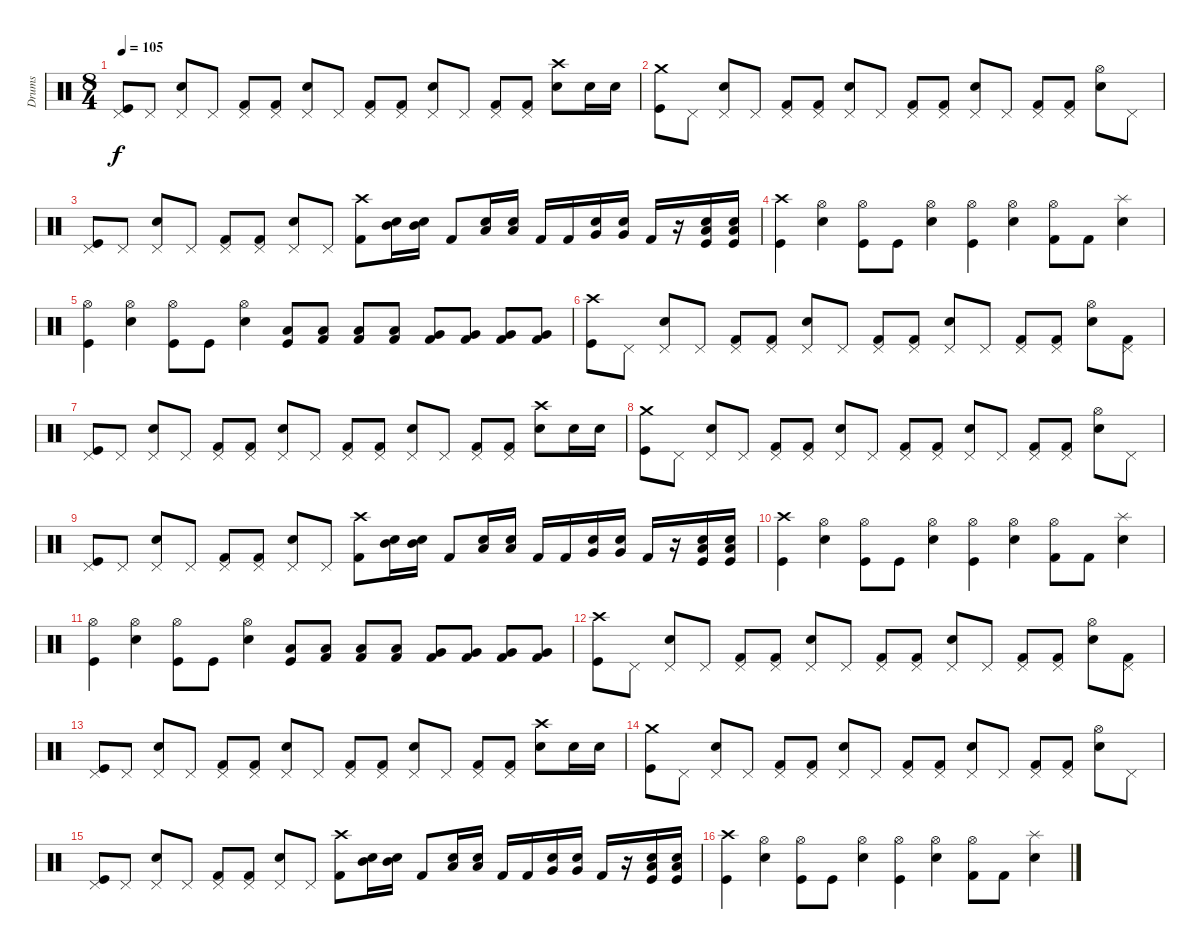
\track ("Drums" "Drums") {instrument percussion}
\staff {score}
\articulation defaults
\ts (8 4)
\tempo 105
\clef neutral
\ks c
("Pedal Hi-Hat (hit)" "Kick (hit)").8{dy f} "Pedal Hi-Hat (hit)".8 ("Pedal Hi-Hat (hit)" "Snare (hit) 2").8 "Pedal Hi-Hat (hit)".8 ("Pedal Hi-Hat (hit)" "Kick (hit) 2").8 ("Pedal Hi-Hat (hit)" "Kick (hit) 2").8 ("Pedal Hi-Hat (hit)" "Snare (hit) 2").8 "Pedal Hi-Hat (hit)".8 ("Pedal Hi-Hat (hit)" "Kick (hit) 2").8 ("Pedal Hi-Hat (hit)" "Kick (hit) 2").8 ("Pedal Hi-Hat (hit)" "Snare (hit) 2").8 "Pedal Hi-Hat (hit)".8 ("Pedal Hi-Hat (hit)" "Kick (hit) 2").8 ("Pedal Hi-Hat (hit)" "Kick (hit) 2").8 ("Crash high (hit)" "Snare (hit) 2").8 "Snare (hit) 2".16 "Snare (hit) 2".16 |
("Crash medium (hit)" "Kick (hit)").8 "Pedal Hi-Hat (hit)".8 ("Pedal Hi-Hat (hit)" "Snare (hit) 2").8 "Pedal Hi-Hat (hit)".8 ("Pedal Hi-Hat (hit)" "Kick (hit) 2").8 ("Pedal Hi-Hat (hit)" "Kick (hit) 2").8 ("Pedal Hi-Hat (hit)" "Snare (hit) 2").8 "Pedal Hi-Hat (hit)".8 ("Pedal Hi-Hat (hit)" "Kick (hit) 2").8 ("Pedal Hi-Hat (hit)" "Kick (hit) 2").8 ("Pedal Hi-Hat (hit)" "Snare (hit) 2").8 "Pedal Hi-Hat (hit)".8 ("Pedal Hi-Hat (hit)" "Kick (hit) 2").8 ("Pedal Hi-Hat (hit)" "Kick (hit) 2").8 ("Hi-Hat (open)" "Snare (hit) 2").8 "Pedal Hi-Hat (hit)".8 |
("Pedal Hi-Hat (hit)" "Kick (hit)").8 "Pedal Hi-Hat (hit)".8 ("Pedal Hi-Hat (hit)" "Snare (hit) 2").8 "Pedal Hi-Hat (hit)".8 ("Pedal Hi-Hat (hit)" "Kick (hit) 2").8 ("Pedal Hi-Hat (hit)" "Kick (hit) 2").8 ("Pedal Hi-Hat (hit)" "Snare (hit) 2").8 "Pedal Hi-Hat (hit)".8 ("Crash high (hit)" "Kick (hit) 2").8 ("Mid Tom (hit)" "Snare (hit) 2").16 ("Mid Tom (hit)" "Snare (hit) 2").16 "Kick (hit) 2".8 ("Low Tom (hit)" "Snare (hit) 2").16 ("Low Tom (hit)" "Snare (hit) 2").16 "Kick (hit) 2".16 "Kick (hit) 2".16 ("Very Low Tom (hit)" "Snare (hit) 2").16 ("Very Low Tom (hit)" "Snare (hit) 2").16 "Kick (hit) 2".16 r.16 ("Low Floor Tom (hit)" "Snare (hit) 2" "Kick (hit)").16 ("Low Floor Tom (hit)" "Snare (hit) 2" "Kick (hit)").16 |
("Crash high (hit)" "Kick (hit)").4 ("Hi-Hat (open)" "Snare (hit) 2").4 ("Hi-Hat (open)" "Kick (hit)").8 "Kick (hit)".8 ("Hi-Hat (open)" "Snare (hit) 2").4 ("Hi-Hat (open)" "Kick (hit)").4 ("Hi-Hat (open)" "Snare (hit) 2").4 ("Hi-Hat (open)" "Kick (hit) 2").8 "Kick (hit) 2".8 ("Splash (hit)" "Snare (hit) 2").4 |
("Hi-Hat (open)" "Kick (hit)").4 ("Hi-Hat (open)" "Snare (hit) 2").4 ("Hi-Hat (open)" "Kick (hit)").8 "Kick (hit)".8 ("Hi-Hat (open)" "Snare (hit) 2").4 ("Low Tom (hit)" "Kick (hit)").8 ("Low Tom (hit)" "Kick (hit) 2").8 ("Low Tom (hit)" "Kick (hit) 2").8 ("Low Tom (hit)" "Kick (hit) 2").8 ("Very Low Tom (hit)" "Kick (hit) 2").8 ("Very Low Tom (hit)" "Kick (hit) 2").8 ("Very Low Tom (hit)" "Kick (hit) 2").8 ("Very Low Tom (hit)" "Kick (hit) 2").8 |
("Crash high (hit)" "Kick (hit)").8 "Pedal Hi-Hat (hit)".8 ("Pedal Hi-Hat (hit)" "Snare (hit) 2").8 "Pedal Hi-Hat (hit)".8 ("Pedal Hi-Hat (hit)" "Kick (hit) 2").8 ("Pedal Hi-Hat (hit)" "Kick (hit) 2").8 ("Pedal Hi-Hat (hit)" "Snare (hit) 2").8 "Pedal Hi-Hat (hit)".8 ("Pedal Hi-Hat (hit)" "Kick (hit) 2").8 ("Pedal Hi-Hat (hit)" "Kick (hit) 2").8 ("Pedal Hi-Hat (hit)" "Snare (hit) 2").8 "Pedal Hi-Hat (hit)".8 ("Pedal Hi-Hat (hit)" "Kick (hit) 2").8 ("Pedal Hi-Hat (hit)" "Kick (hit) 2").8 ("Hi-Hat (open)" "Snare (hit) 2").8 ("Pedal Hi-Hat (hit)" "Kick (hit) 2").8 |
("Pedal Hi-Hat (hit)" "Kick (hit)").8 "Pedal Hi-Hat (hit)".8 ("Pedal Hi-Hat (hit)" "Snare (hit) 2").8 "Pedal Hi-Hat (hit)".8 ("Pedal Hi-Hat (hit)" "Kick (hit) 2").8 ("Pedal Hi-Hat (hit)" "Kick (hit) 2").8 ("Pedal Hi-Hat (hit)" "Snare (hit) 2").8 "Pedal Hi-Hat (hit)".8 ("Pedal Hi-Hat (hit)" "Kick (hit) 2").8 ("Pedal Hi-Hat (hit)" "Kick (hit) 2").8 ("Pedal Hi-Hat (hit)" "Snare (hit) 2").8 "Pedal Hi-Hat (hit)".8 ("Pedal Hi-Hat (hit)" "Kick (hit) 2").8 ("Pedal Hi-Hat (hit)" "Kick (hit) 2").8 ("Crash high (hit)" "Snare (hit) 2").8 "Snare (hit) 2".16 "Snare (hit) 2".16 |
("Crash medium (hit)" "Kick (hit)").8 "Pedal Hi-Hat (hit)".8 ("Pedal Hi-Hat (hit)" "Snare (hit) 2").8 "Pedal Hi-Hat (hit)".8 ("Pedal Hi-Hat (hit)" "Kick (hit) 2").8 ("Pedal Hi-Hat (hit)" "Kick (hit) 2").8 ("Pedal Hi-Hat (hit)" "Snare (hit) 2").8 "Pedal Hi-Hat (hit)".8 ("Pedal Hi-Hat (hit)" "Kick (hit) 2").8 ("Pedal Hi-Hat (hit)" "Kick (hit) 2").8 ("Pedal Hi-Hat (hit)" "Snare (hit) 2").8 "Pedal Hi-Hat (hit)".8 ("Pedal Hi-Hat (hit)" "Kick (hit) 2").8 ("Pedal Hi-Hat (hit)" "Kick (hit) 2").8 ("Hi-Hat (open)" "Snare (hit) 2").8 "Pedal Hi-Hat (hit)".8 |
("Pedal Hi-Hat (hit)" "Kick (hit)").8 "Pedal Hi-Hat (hit)".8 ("Pedal Hi-Hat (hit)" "Snare (hit) 2").8 "Pedal Hi-Hat (hit)".8 ("Pedal Hi-Hat (hit)" "Kick (hit) 2").8 ("Pedal Hi-Hat (hit)" "Kick (hit) 2").8 ("Pedal Hi-Hat (hit)" "Snare (hit) 2").8 "Pedal Hi-Hat (hit)".8 ("Crash high (hit)" "Kick (hit) 2").8 ("Mid Tom (hit)" "Snare (hit) 2").16 ("Mid Tom (hit)" "Snare (hit) 2").16 "Kick (hit) 2".8 ("Low Tom (hit)" "Snare (hit) 2").16 ("Low Tom (hit)" "Snare (hit) 2").16 "Kick (hit) 2".16 "Kick (hit) 2".16 ("Very Low Tom (hit)" "Snare (hit) 2").16 ("Very Low Tom (hit)" "Snare (hit) 2").16 "Kick (hit) 2".16 r.16 ("Low Floor Tom (hit)" "Snare (hit) 2" "Kick (hit)").16 ("Low Floor Tom (hit)" "Snare (hit) 2" "Kick (hit)").16 |
("Crash high (hit)" "Kick (hit)").4 ("Hi-Hat (open)" "Snare (hit) 2").4 ("Hi-Hat (open)" "Kick (hit)").8 "Kick (hit)".8 ("Hi-Hat (open)" "Snare (hit) 2").4 ("Hi-Hat (open)" "Kick (hit)").4 ("Hi-Hat (open)" "Snare (hit) 2").4 ("Hi-Hat (open)" "Kick (hit) 2").8 "Kick (hit) 2".8 ("Splash (hit)" "Snare (hit) 2").4 |
("Hi-Hat (open)" "Kick (hit)").4 ("Hi-Hat (open)" "Snare (hit) 2").4 ("Hi-Hat (open)" "Kick (hit)").8 "Kick (hit)".8 ("Hi-Hat (open)" "Snare (hit) 2").4 ("Low Tom (hit)" "Kick (hit)").8 ("Low Tom (hit)" "Kick (hit) 2").8 ("Low Tom (hit)" "Kick (hit) 2").8 ("Low Tom (hit)" "Kick (hit) 2").8 ("Very Low Tom (hit)" "Kick (hit) 2").8 ("Very Low Tom (hit)" "Kick (hit) 2").8 ("Very Low Tom (hit)" "Kick (hit) 2").8 ("Very Low Tom (hit)" "Kick (hit) 2").8 |
("Crash high (hit)" "Kick (hit)").8 "Pedal Hi-Hat (hit)".8 ("Pedal Hi-Hat (hit)" "Snare (hit) 2").8 "Pedal Hi-Hat (hit)".8 ("Pedal Hi-Hat (hit)" "Kick (hit) 2").8 ("Pedal Hi-Hat (hit)" "Kick (hit) 2").8 ("Pedal Hi-Hat (hit)" "Snare (hit) 2").8 "Pedal Hi-Hat (hit)".8 ("Pedal Hi-Hat (hit)" "Kick (hit) 2").8 ("Pedal Hi-Hat (hit)" "Kick (hit) 2").8 ("Pedal Hi-Hat (hit)" "Snare (hit) 2").8 "Pedal Hi-Hat (hit)".8 ("Pedal Hi-Hat (hit)" "Kick (hit) 2").8 ("Pedal Hi-Hat (hit)" "Kick (hit) 2").8 ("Hi-Hat (open)" "Snare (hit) 2").8 ("Pedal Hi-Hat (hit)" "Kick (hit) 2").8 |
("Pedal Hi-Hat (hit)" "Kick (hit)").8 "Pedal Hi-Hat (hit)".8 ("Pedal Hi-Hat (hit)" "Snare (hit) 2").8 "Pedal Hi-Hat (hit)".8 ("Pedal Hi-Hat (hit)" "Kick (hit) 2").8 ("Pedal Hi-Hat (hit)" "Kick (hit) 2").8 ("Pedal Hi-Hat (hit)" "Snare (hit) 2").8 "Pedal Hi-Hat (hit)".8 ("Pedal Hi-Hat (hit)" "Kick (hit) 2").8 ("Pedal Hi-Hat (hit)" "Kick (hit) 2").8 ("Pedal Hi-Hat (hit)" "Snare (hit) 2").8 "Pedal Hi-Hat (hit)".8 ("Pedal Hi-Hat (hit)" "Kick (hit) 2").8 ("Pedal Hi-Hat (hit)" "Kick (hit) 2").8 ("Crash high (hit)" "Snare (hit) 2").8 "Snare (hit) 2".16 "Snare (hit) 2".16 |
("Crash medium (hit)" "Kick (hit)").8 "Pedal Hi-Hat (hit)".8 ("Pedal Hi-Hat (hit)" "Snare (hit) 2").8 "Pedal Hi-Hat (hit)".8 ("Pedal Hi-Hat (hit)" "Kick (hit) 2").8 ("Pedal Hi-Hat (hit)" "Kick (hit) 2").8 ("Pedal Hi-Hat (hit)" "Snare (hit) 2").8 "Pedal Hi-Hat (hit)".8 ("Pedal Hi-Hat (hit)" "Kick (hit) 2").8 ("Pedal Hi-Hat (hit)" "Kick (hit) 2").8 ("Pedal Hi-Hat (hit)" "Snare (hit) 2").8 "Pedal Hi-Hat (hit)".8 ("Pedal Hi-Hat (hit)" "Kick (hit) 2").8 ("Pedal Hi-Hat (hit)" "Kick (hit) 2").8 ("Hi-Hat (open)" "Snare (hit) 2").8 "Pedal Hi-Hat (hit)".8 |
("Pedal Hi-Hat (hit)" "Kick (hit)").8 "Pedal Hi-Hat (hit)".8 ("Pedal Hi-Hat (hit)" "Snare (hit) 2").8 "Pedal Hi-Hat (hit)".8 ("Pedal Hi-Hat (hit)" "Kick (hit) 2").8 ("Pedal Hi-Hat (hit)" "Kick (hit) 2").8 ("Pedal Hi-Hat (hit)" "Snare (hit) 2").8 "Pedal Hi-Hat (hit)".8 ("Crash high (hit)" "Kick (hit) 2").8 ("Mid Tom (hit)" "Snare (hit) 2").16 ("Mid Tom (hit)" "Snare (hit) 2").16 "Kick (hit) 2".8 ("Low Tom (hit)" "Snare (hit) 2").16 ("Low Tom (hit)" "Snare (hit) 2").16 "Kick (hit) 2".16 "Kick (hit) 2".16 ("Very Low Tom (hit)" "Snare (hit) 2").16 ("Very Low Tom (hit)" "Snare (hit) 2").16 "Kick (hit) 2".16 r.16 ("Low Floor Tom (hit)" "Snare (hit) 2" "Kick (hit)").16 ("Low Floor Tom (hit)" "Snare (hit) 2" "Kick (hit)").16 |
("Crash high (hit)" "Kick (hit)").4 ("Hi-Hat (open)" "Snare (hit) 2").4 ("Hi-Hat (open)" "Kick (hit)").8 "Kick (hit)".8 ("Hi-Hat (open)" "Snare (hit) 2").4 ("Hi-Hat (open)" "Kick (hit)").4 ("Hi-Hat (open)" "Snare (hit) 2").4 ("Hi-Hat (open)" "Kick (hit) 2").8 "Kick (hit) 2".8 ("Splash (hit)" "Snare (hit) 2").4
